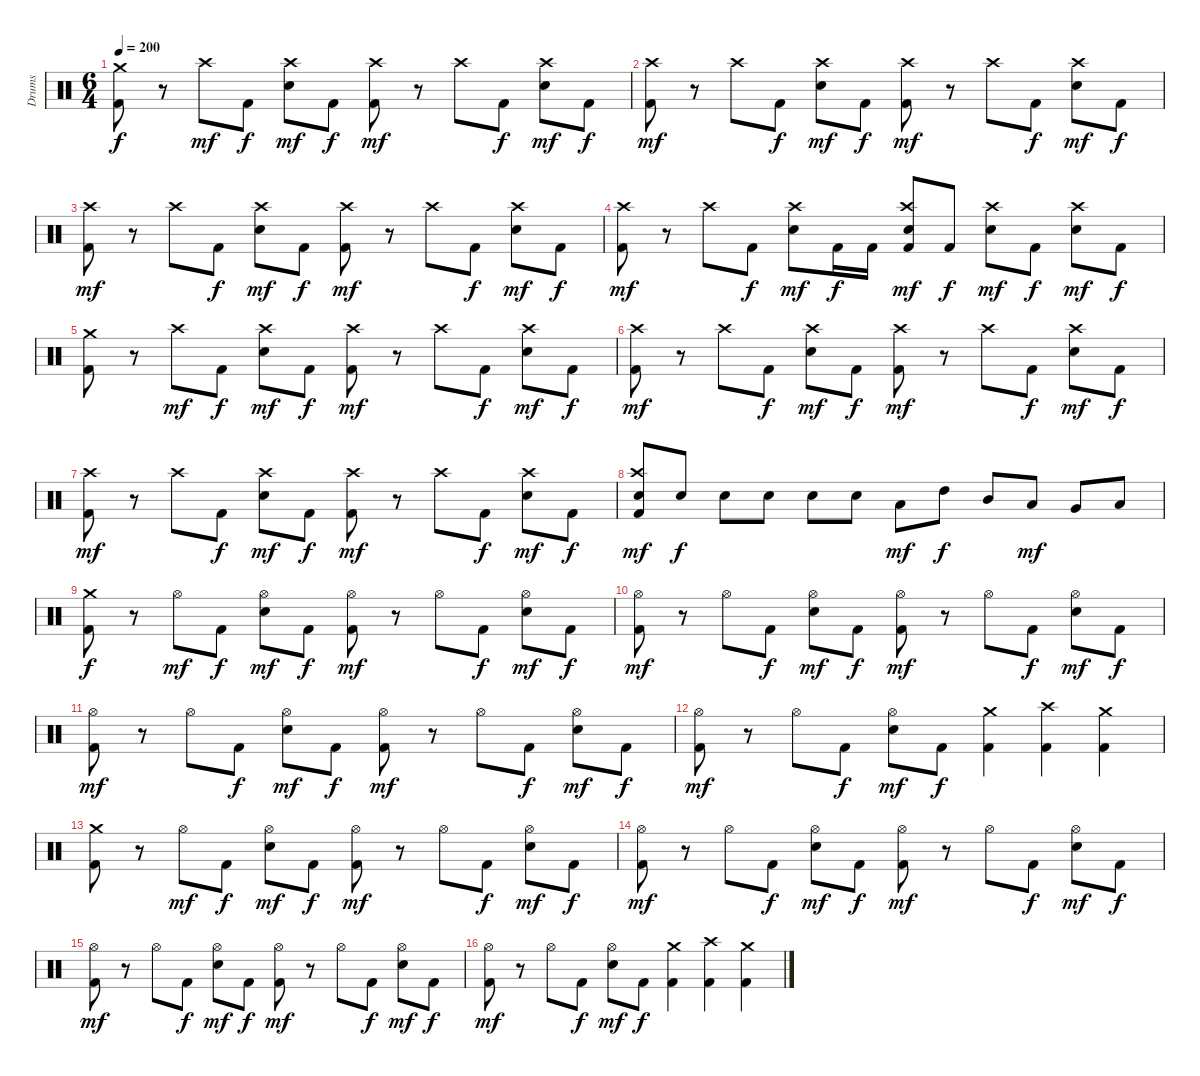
\track ("Drums" "Drums") {instrument percussion}
\staff {score}
\articulation defaults
\ts (6 4)
\tempo 200
\clef neutral
\ks c
("Crash medium (hit)" "Kick (hit) 2").8{dy f} r.8 "Crash high (hit)".8{dy mf} "Kick (hit) 2".8{dy f} ("Crash high (hit)" "Snare (hit) 2").8{dy mf} "Kick (hit) 2".8{dy f} ("Crash high (hit)" "Kick (hit) 2").8{dy mf} r.8 "Crash high (hit)".8 "Kick (hit) 2".8{dy f} ("Crash high (hit)" "Snare (hit) 2").8{dy mf} "Kick (hit) 2".8{dy f} |
("Crash high (hit)" "Kick (hit) 2").8{dy mf} r.8 "Crash high (hit)".8 "Kick (hit) 2".8{dy f} ("Crash high (hit)" "Snare (hit) 2").8{dy mf} "Kick (hit) 2".8{dy f} ("Crash high (hit)" "Kick (hit) 2").8{dy mf} r.8 "Crash high (hit)".8 "Kick (hit) 2".8{dy f} ("Crash high (hit)" "Snare (hit) 2").8{dy mf} "Kick (hit) 2".8{dy f} |
("Crash high (hit)" "Kick (hit) 2").8{dy mf} r.8 "Crash high (hit)".8 "Kick (hit) 2".8{dy f} ("Crash high (hit)" "Snare (hit) 2").8{dy mf} "Kick (hit) 2".8{dy f} ("Crash high (hit)" "Kick (hit) 2").8{dy mf} r.8 "Crash high (hit)".8 "Kick (hit) 2".8{dy f} ("Crash high (hit)" "Snare (hit) 2").8{dy mf} "Kick (hit) 2".8{dy f} |
("Crash high (hit)" "Kick (hit) 2").8{dy mf} r.8 "Crash high (hit)".8 "Kick (hit) 2".8{dy f} ("Crash high (hit)" "Snare (hit) 2").8{dy mf} "Kick (hit) 2".16{dy f} "Kick (hit) 2".16 ("Crash high (hit)" "Snare (hit) 2" "Kick (hit) 2").8{dy mf} "Kick (hit) 2".8{dy f} ("Crash high (hit)" "Snare (hit) 2").8{dy mf} "Kick (hit) 2".8{dy f} ("Crash high (hit)" "Snare (hit) 2").8{dy mf} "Kick (hit) 2".8{dy f} |
("Crash medium (hit)" "Kick (hit) 2").8 r.8 "Crash high (hit)".8{dy mf} "Kick (hit) 2".8{dy f} ("Crash high (hit)" "Snare (hit) 2").8{dy mf} "Kick (hit) 2".8{dy f} ("Crash high (hit)" "Kick (hit) 2").8{dy mf} r.8 "Crash high (hit)".8 "Kick (hit) 2".8{dy f} ("Crash high (hit)" "Snare (hit) 2").8{dy mf} "Kick (hit) 2".8{dy f} |
("Crash high (hit)" "Kick (hit) 2").8{dy mf} r.8 "Crash high (hit)".8 "Kick (hit) 2".8{dy f} ("Crash high (hit)" "Snare (hit) 2").8{dy mf} "Kick (hit) 2".8{dy f} ("Crash high (hit)" "Kick (hit) 2").8{dy mf} r.8 "Crash high (hit)".8 "Kick (hit) 2".8{dy f} ("Crash high (hit)" "Snare (hit) 2").8{dy mf} "Kick (hit) 2".8{dy f} |
("Crash high (hit)" "Kick (hit) 2").8{dy mf} r.8 "Crash high (hit)".8 "Kick (hit) 2".8{dy f} ("Crash high (hit)" "Snare (hit) 2").8{dy mf} "Kick (hit) 2".8{dy f} ("Crash high (hit)" "Kick (hit) 2").8{dy mf} r.8 "Crash high (hit)".8 "Kick (hit) 2".8{dy f} ("Crash high (hit)" "Snare (hit) 2").8{dy mf} "Kick (hit) 2".8{dy f} |
("Crash high (hit)" "Snare (hit) 2" "Kick (hit) 2").8{dy mf} "Snare (hit) 2".8{dy f} "Snare (hit) 2".8 "Snare (hit) 2".8 "Snare (hit) 2".8 "Snare (hit) 2".8 "Low Floor Tom (hit)".8{dy mf} "High Tom (hit)".8{dy f} "Mid Tom (hit)".8 "Low Tom (hit)".8{dy mf} "Very Low Tom (hit)".8 "Low Floor Tom (hit)".8 |
("Crash medium (hit)" "Kick (hit) 2").8{dy f} r.8 "Hi-Hat (open)".8{dy mf} "Kick (hit) 2".8{dy f} ("Hi-Hat (open)" "Snare (hit) 2").8{dy mf} "Kick (hit) 2".8{dy f} ("Hi-Hat (open)" "Kick (hit) 2").8{dy mf} r.8 "Hi-Hat (open)".8 "Kick (hit) 2".8{dy f} ("Hi-Hat (open)" "Snare (hit) 2").8{dy mf} "Kick (hit) 2".8{dy f} |
("Hi-Hat (open)" "Kick (hit) 2").8{dy mf} r.8 "Hi-Hat (open)".8 "Kick (hit) 2".8{dy f} ("Hi-Hat (open)" "Snare (hit) 2").8{dy mf} "Kick (hit) 2".8{dy f} ("Hi-Hat (open)" "Kick (hit) 2").8{dy mf} r.8 "Hi-Hat (open)".8 "Kick (hit) 2".8{dy f} ("Hi-Hat (open)" "Snare (hit) 2").8{dy mf} "Kick (hit) 2".8{dy f} |
("Hi-Hat (open)" "Kick (hit) 2").8{dy mf} r.8 "Hi-Hat (open)".8 "Kick (hit) 2".8{dy f} ("Hi-Hat (open)" "Snare (hit) 2").8{dy mf} "Kick (hit) 2".8{dy f} ("Hi-Hat (open)" "Kick (hit) 2").8{dy mf} r.8 "Hi-Hat (open)".8 "Kick (hit) 2".8{dy f} ("Hi-Hat (open)" "Snare (hit) 2").8{dy mf} "Kick (hit) 2".8{dy f} |
("Hi-Hat (open)" "Kick (hit) 2").8{dy mf} r.8 "Hi-Hat (open)".8 "Kick (hit) 2".8{dy f} ("Hi-Hat (open)" "Snare (hit) 2").8{dy mf} "Kick (hit) 2".8{dy f} ("Crash medium (hit)" "Kick (hit) 2").4 ("Crash high (hit)" "Kick (hit) 2").4 ("Crash medium (hit)" "Kick (hit) 2").4 |
("Crash medium (hit)" "Kick (hit) 2").8 r.8 "Hi-Hat (open)".8{dy mf} "Kick (hit) 2".8{dy f} ("Hi-Hat (open)" "Snare (hit) 2").8{dy mf} "Kick (hit) 2".8{dy f} ("Hi-Hat (open)" "Kick (hit) 2").8{dy mf} r.8 "Hi-Hat (open)".8 "Kick (hit) 2".8{dy f} ("Hi-Hat (open)" "Snare (hit) 2").8{dy mf} "Kick (hit) 2".8{dy f} |
("Hi-Hat (open)" "Kick (hit) 2").8{dy mf} r.8 "Hi-Hat (open)".8 "Kick (hit) 2".8{dy f} ("Hi-Hat (open)" "Snare (hit) 2").8{dy mf} "Kick (hit) 2".8{dy f} ("Hi-Hat (open)" "Kick (hit) 2").8{dy mf} r.8 "Hi-Hat (open)".8 "Kick (hit) 2".8{dy f} ("Hi-Hat (open)" "Snare (hit) 2").8{dy mf} "Kick (hit) 2".8{dy f} |
("Hi-Hat (open)" "Kick (hit) 2").8{dy mf} r.8 "Hi-Hat (open)".8 "Kick (hit) 2".8{dy f} ("Hi-Hat (open)" "Snare (hit) 2").8{dy mf} "Kick (hit) 2".8{dy f} ("Hi-Hat (open)" "Kick (hit) 2").8{dy mf} r.8 "Hi-Hat (open)".8 "Kick (hit) 2".8{dy f} ("Hi-Hat (open)" "Snare (hit) 2").8{dy mf} "Kick (hit) 2".8{dy f} |
("Hi-Hat (open)" "Kick (hit) 2").8{dy mf} r.8 "Hi-Hat (open)".8 "Kick (hit) 2".8{dy f} ("Hi-Hat (open)" "Snare (hit) 2").8{dy mf} "Kick (hit) 2".8{dy f} ("Crash medium (hit)" "Kick (hit) 2").4 ("Crash high (hit)" "Kick (hit) 2").4 ("Crash medium (hit)" "Kick (hit) 2").4
